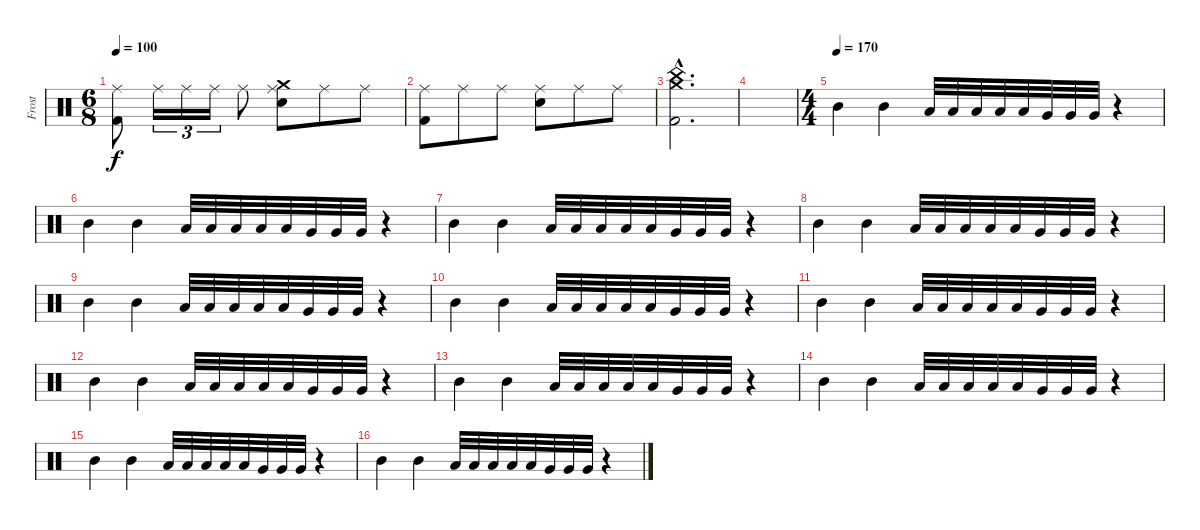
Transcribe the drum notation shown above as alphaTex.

\track ("Frost" "Frost") {instrument percussion}
\staff {score}
\articulation defaults
\ts (6 8)
\tempo 100
\clef neutral
\ks c
("Kick (hit) 2" "Ride (middle)").8{dy f} "Ride (middle)".16{tu (3 2)} "Ride (middle)".16{tu (3 2)} "Ride (middle)".16{tu (3 2)} "Ride (middle)".8 ("Crash medium (hit)" "Snare (hit) 2" "Ride (middle)").8 "Ride (middle)".8 "Ride (middle)".8 |
("Kick (hit) 2" "Ride (middle)").8 "Ride (middle)".8 "Ride (middle)".8 ("Snare (hit) 2" "Ride (middle)").8 "Ride (middle)".8 "Ride (middle)".8 |
("Kick (hit) 2"{hac} "Crash medium (hit)"{hac} "China (hit)"{hac}).2{d} |
|
\ts (4 4)
\tempo (170)
"Mid Tom (hit)".4 "Mid Tom (hit)".4 "Low Tom (hit)".32 "Low Tom (hit)".32 "Low Tom (hit)".32 "Low Tom (hit)".32 "Low Tom (hit)".32 "Very Low Tom (hit)".32 "Very Low Tom (hit)".32 "Very Low Tom (hit)".32 r.4 |
"Mid Tom (hit)".4 "Mid Tom (hit)".4 "Low Tom (hit)".32 "Low Tom (hit)".32 "Low Tom (hit)".32 "Low Tom (hit)".32 "Low Tom (hit)".32 "Very Low Tom (hit)".32 "Very Low Tom (hit)".32 "Very Low Tom (hit)".32 r.4 |
"Mid Tom (hit)".4 "Mid Tom (hit)".4 "Low Tom (hit)".32 "Low Tom (hit)".32 "Low Tom (hit)".32 "Low Tom (hit)".32 "Low Tom (hit)".32 "Very Low Tom (hit)".32 "Very Low Tom (hit)".32 "Very Low Tom (hit)".32 r.4 |
"Mid Tom (hit)".4 "Mid Tom (hit)".4 "Low Tom (hit)".32 "Low Tom (hit)".32 "Low Tom (hit)".32 "Low Tom (hit)".32 "Low Tom (hit)".32 "Very Low Tom (hit)".32 "Very Low Tom (hit)".32 "Very Low Tom (hit)".32 r.4 |
"Mid Tom (hit)".4 "Mid Tom (hit)".4 "Low Tom (hit)".32 "Low Tom (hit)".32 "Low Tom (hit)".32 "Low Tom (hit)".32 "Low Tom (hit)".32 "Very Low Tom (hit)".32 "Very Low Tom (hit)".32 "Very Low Tom (hit)".32 r.4 |
"Mid Tom (hit)".4 "Mid Tom (hit)".4 "Low Tom (hit)".32 "Low Tom (hit)".32 "Low Tom (hit)".32 "Low Tom (hit)".32 "Low Tom (hit)".32 "Very Low Tom (hit)".32 "Very Low Tom (hit)".32 "Very Low Tom (hit)".32 r.4 |
"Mid Tom (hit)".4 "Mid Tom (hit)".4 "Low Tom (hit)".32 "Low Tom (hit)".32 "Low Tom (hit)".32 "Low Tom (hit)".32 "Low Tom (hit)".32 "Very Low Tom (hit)".32 "Very Low Tom (hit)".32 "Very Low Tom (hit)".32 r.4 |
"Mid Tom (hit)".4 "Mid Tom (hit)".4 "Low Tom (hit)".32 "Low Tom (hit)".32 "Low Tom (hit)".32 "Low Tom (hit)".32 "Low Tom (hit)".32 "Very Low Tom (hit)".32 "Very Low Tom (hit)".32 "Very Low Tom (hit)".32 r.4 |
"Mid Tom (hit)".4 "Mid Tom (hit)".4 "Low Tom (hit)".32 "Low Tom (hit)".32 "Low Tom (hit)".32 "Low Tom (hit)".32 "Low Tom (hit)".32 "Very Low Tom (hit)".32 "Very Low Tom (hit)".32 "Very Low Tom (hit)".32 r.4 |
"Mid Tom (hit)".4 "Mid Tom (hit)".4 "Low Tom (hit)".32 "Low Tom (hit)".32 "Low Tom (hit)".32 "Low Tom (hit)".32 "Low Tom (hit)".32 "Very Low Tom (hit)".32 "Very Low Tom (hit)".32 "Very Low Tom (hit)".32 r.4 |
"Mid Tom (hit)".4 "Mid Tom (hit)".4 "Low Tom (hit)".32 "Low Tom (hit)".32 "Low Tom (hit)".32 "Low Tom (hit)".32 "Low Tom (hit)".32 "Very Low Tom (hit)".32 "Very Low Tom (hit)".32 "Very Low Tom (hit)".32 r.4 |
"Mid Tom (hit)".4 "Mid Tom (hit)".4 "Low Tom (hit)".32 "Low Tom (hit)".32 "Low Tom (hit)".32 "Low Tom (hit)".32 "Low Tom (hit)".32 "Very Low Tom (hit)".32 "Very Low Tom (hit)".32 "Very Low Tom (hit)".32 r.4
